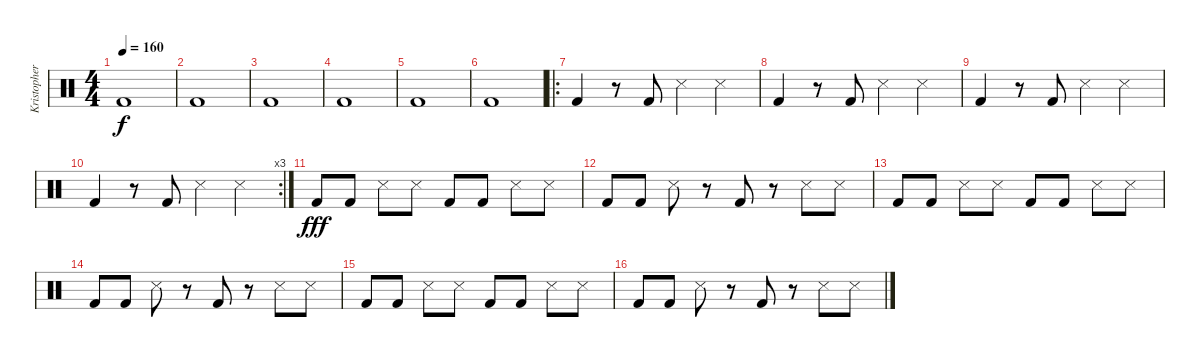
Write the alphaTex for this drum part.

\track ("Kristopher Schau (deep freezer,stove)" "Kristopher") {instrument percussion}
\staff {score}
\articulation defaults
\ts (4 4)
\tempo 160
\clef neutral
\ks c "Kick (hit) 2".1{dy f}
|
"Kick (hit) 2".1 |
"Kick (hit) 2".1 |
"Kick (hit) 2".1 |
"Kick (hit) 2".1 |
"Kick (hit) 2".1 |
\ro "Kick (hit) 2".4
r.8 "Kick (hit) 2".8 "Snare (side stick) 3".4 "Snare (side stick) 3".4 |
"Kick (hit) 2".4 r.8 "Kick (hit) 2".8 "Snare (side stick) 3".4 "Snare (side stick) 3".4 |
"Kick (hit) 2".4 r.8 "Kick (hit) 2".8 "Snare (side stick) 3".4 "Snare (side stick) 3".4 |
\rc 3 "Kick (hit) 2".4
r.8 "Kick (hit) 2".8 "Snare (side stick) 3".4 "Snare (side stick) 3".4 |
"Kick (hit) 2".8{dy fff} "Kick (hit) 2".8 "Snare (side stick) 3".8 "Snare (side stick) 3".8 "Kick (hit) 2".8 "Kick (hit) 2".8 "Snare (side stick) 3".8 "Snare (side stick) 3".8 |
"Kick (hit) 2".8 "Kick (hit) 2".8 "Snare (side stick) 3".8 r.8 "Kick (hit) 2".8 r.8 "Snare (side stick) 3".8 "Snare (side stick) 3".8 |
"Kick (hit) 2".8 "Kick (hit) 2".8 "Snare (side stick) 3".8 "Snare (side stick) 3".8 "Kick (hit) 2".8 "Kick (hit) 2".8 "Snare (side stick) 3".8 "Snare (side stick) 3".8 |
"Kick (hit) 2".8 "Kick (hit) 2".8 "Snare (side stick) 3".8 r.8 "Kick (hit) 2".8 r.8 "Snare (side stick) 3".8 "Snare (side stick) 3".8 |
"Kick (hit) 2".8 "Kick (hit) 2".8 "Snare (side stick) 3".8 "Snare (side stick) 3".8 "Kick (hit) 2".8 "Kick (hit) 2".8 "Snare (side stick) 3".8 "Snare (side stick) 3".8 |
"Kick (hit) 2".8 "Kick (hit) 2".8 "Snare (side stick) 3".8 r.8 "Kick (hit) 2".8 r.8 "Snare (side stick) 3".8 "Snare (side stick) 3".8
